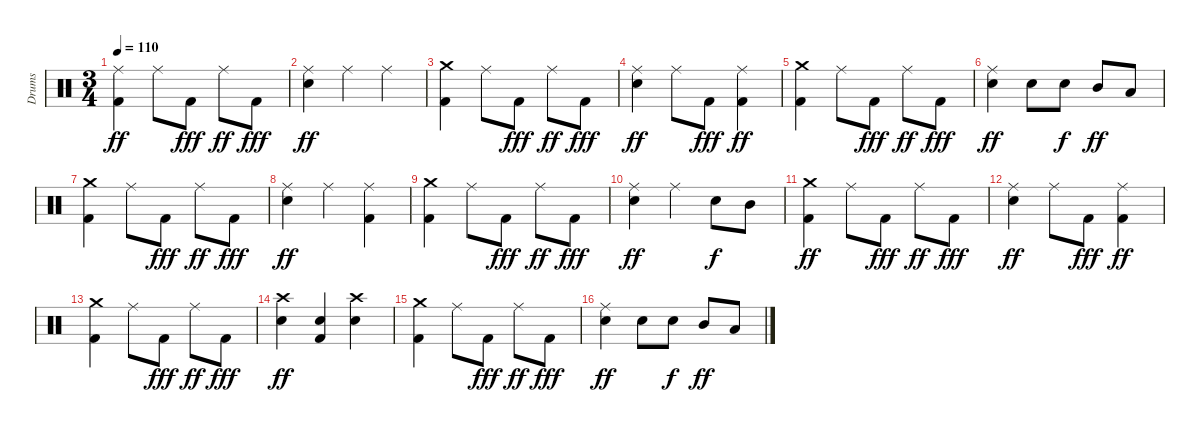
\track ("Drums" "Drums") {instrument percussion}
\staff {score}
\articulation defaults
\ts (3 4)
\tempo 110
\clef neutral
\ks c
("Ride (middle)" "Kick (hit) 2").4{dy ff} "Ride (middle)".8 "Kick (hit) 2".8{dy fff} "Ride (middle)".8{dy ff} "Kick (hit) 2".8{dy fff} |
("Ride (middle)" "Snare (hit) 2").4{dy ff} "Ride (middle)".4 "Ride (middle)".4 |
("Crash medium (hit)" "Kick (hit) 2").4 "Ride (middle)".8 "Kick (hit) 2".8{dy fff} "Ride (middle)".8{dy ff} "Kick (hit) 2".8{dy fff} |
("Ride (middle)" "Snare (hit) 2").4{dy ff} "Ride (middle)".8 "Kick (hit) 2".8{dy fff} ("Ride (middle)" "Kick (hit) 2").4{dy ff} |
("Crash medium (hit)" "Kick (hit) 2").4 "Ride (middle)".8 "Kick (hit) 2".8{dy fff} "Ride (middle)".8{dy ff} "Kick (hit) 2".8{dy fff} |
("Ride (middle)" "Snare (hit) 2").4{dy ff} "Snare (hit) 2".8 "Snare (hit) 2".8{dy f} "Mid Tom (hit)".8{dy ff} "Low Tom (hit)".8 |
("Crash medium (hit)" "Kick (hit) 2").4 "Ride (middle)".8 "Kick (hit) 2".8{dy fff} "Ride (middle)".8{dy ff} "Kick (hit) 2".8{dy fff} |
("Ride (middle)" "Snare (hit) 2").4{dy ff} "Ride (middle)".4 ("Ride (middle)" "Kick (hit) 2").4 |
("Crash medium (hit)" "Kick (hit) 2").4 "Ride (middle)".8 "Kick (hit) 2".8{dy fff} "Ride (middle)".8{dy ff} "Kick (hit) 2".8{dy fff} |
("Ride (middle)" "Snare (hit) 2").4{dy ff} "Ride (middle)".4 "Snare (hit) 2".8{dy f} "Mid Tom (hit)".8 |
("Crash medium (hit)" "Kick (hit) 2").4{dy ff} "Ride (middle)".8 "Kick (hit) 2".8{dy fff} "Ride (middle)".8{dy ff} "Kick (hit) 2".8{dy fff} |
("Ride (middle)" "Snare (hit) 2").4{dy ff} "Ride (middle)".8 "Kick (hit) 2".8{dy fff} ("Ride (middle)" "Kick (hit) 2").4{dy ff} |
("Crash medium (hit)" "Kick (hit) 2").4 "Ride (middle)".8 "Kick (hit) 2".8{dy fff} "Ride (middle)".8{dy ff} "Kick (hit) 2".8{dy fff} |
("Crash high (hit)" "Snare (hit) 2").4{dy ff} ("Snare (hit) 2" "Kick (hit) 2").4 ("Crash high (hit)" "Snare (hit) 2").4 |
("Crash medium (hit)" "Kick (hit) 2").4 "Ride (middle)".8 "Kick (hit) 2".8{dy fff} "Ride (middle)".8{dy ff} "Kick (hit) 2".8{dy fff} |
("Ride (middle)" "Snare (hit) 2").4{dy ff} "Snare (hit) 2".8 "Snare (hit) 2".8{dy f} "Mid Tom (hit)".8{dy ff} "Low Tom (hit)".8
